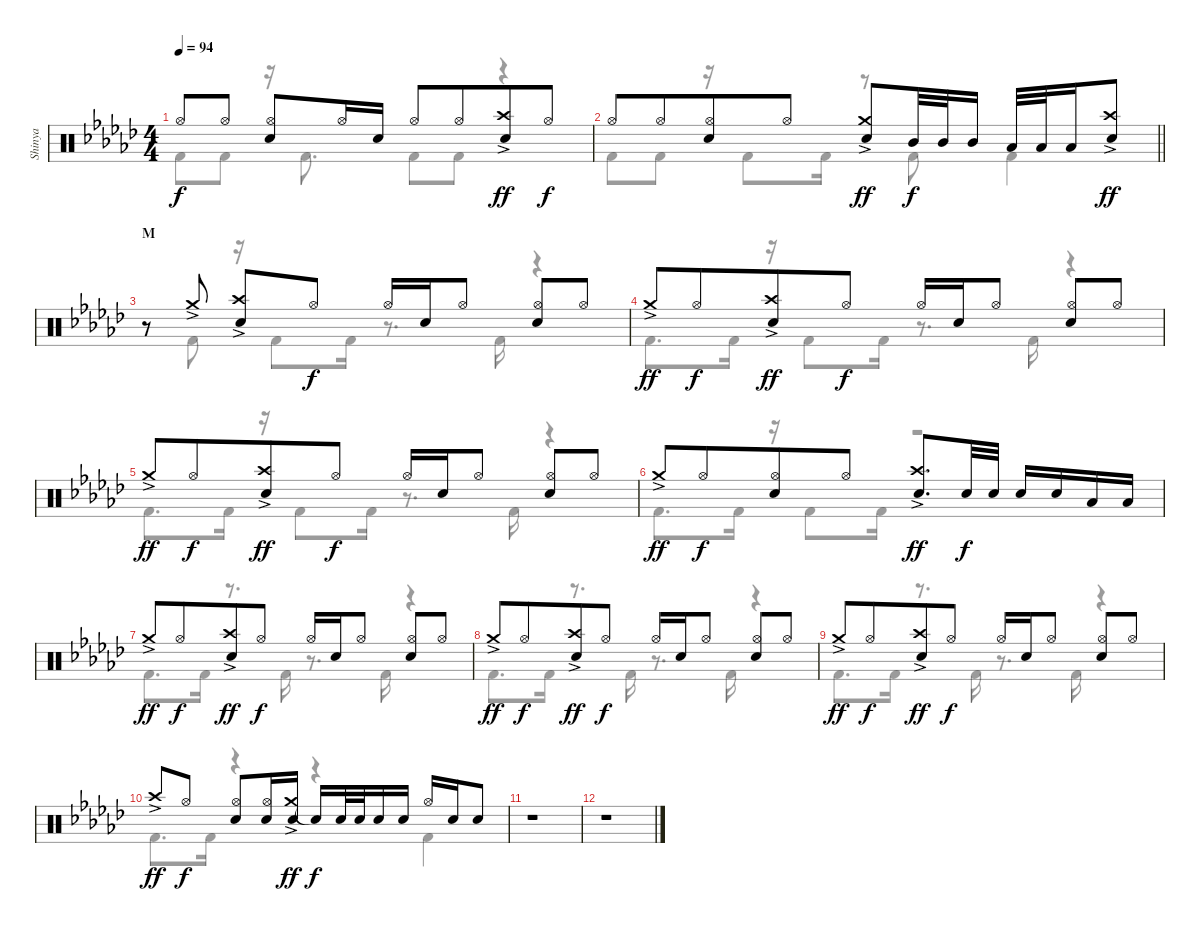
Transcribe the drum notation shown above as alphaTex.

\track ("Shinya" "Shinya") {instrument percussion}
\staff {score}
\articulation defaults
\voice
\ts (4 4)
\tempo 94
\clef neutral
\ks ebminor "Hi-Hat (open)".8{dy f} "Hi-Hat (open)".8
("Hi-Hat (open)" "Snare (hit) 2").8 "Hi-Hat (open)".16 "Snare (hit) 2".16 "Hi-Hat (open)".8 "Hi-Hat (open)".8{beam merge} ("Crash high (hit)"{ac} "Snare (hit) 2").8{dy ff} "Hi-Hat (open)".8{dy f} |
\barLineRight lightlight "Hi-Hat (open)".8 "Hi-Hat (open)".8{beam merge}
("Hi-Hat (open)" "Snare (hit) 2").8 "Hi-Hat (open)".8 ("Crash medium (hit)"{ac} "Snare (hit) 2").8{dy ff} "Mid Tom (hit)".32{dy f} "Mid Tom (hit)".32 "Mid Tom (hit)".16 "Low Tom (hit)".32 "Low Tom (hit)".32 "Low Tom (hit)".16 ("Crash high (hit)"{ac} "Snare (hit) 2").8{dy ff} |
\section ("" "M")
r.8 "Crash medium (hit)"{ac}.8 ("Crash high (hit)"{ac} "Snare (hit) 2").8 "Hi-Hat (open)".8{dy f} "Hi-Hat (open)".16 "Snare (hit) 2".16 "Hi-Hat (open)".8 ("Hi-Hat (open)" "Snare (hit) 2").8 "Hi-Hat (open)".8 |
"Crash medium (hit)"{ac}.8{dy ff} "Hi-Hat (open)".8{dy f beam merge} ("Crash high (hit)"{ac} "Snare (hit) 2").8{dy ff} "Hi-Hat (open)".8{dy f} "Hi-Hat (open)".16 "Snare (hit) 2".16 "Hi-Hat (open)".8 ("Hi-Hat (open)" "Snare (hit) 2").8 "Hi-Hat (open)".8 |
"Crash medium (hit)"{ac}.8{dy ff} "Hi-Hat (open)".8{dy f beam merge} ("Crash high (hit)"{ac} "Snare (hit) 2").8{dy ff} "Hi-Hat (open)".8{dy f} "Hi-Hat (open)".16 "Snare (hit) 2".16 "Hi-Hat (open)".8 ("Hi-Hat (open)" "Snare (hit) 2").8 "Hi-Hat (open)".8 |
"Crash medium (hit)"{ac}.8{dy ff} "Hi-Hat (open)".8{dy f beam merge} ("Hi-Hat (open)" "Snare (hit) 2").8 "Hi-Hat (open)".8 ("Crash high (hit)"{ac} "Snare (hit) 2").8{d dy ff} "Snare (hit) 2".32{dy f} "Snare (hit) 2".32 "Snare (hit) 2".16 "Snare (hit) 2".16 "Low Tom (hit)".16 "Low Tom (hit)".16 |
"Crash medium (hit)"{ac}.8{dy ff} "Hi-Hat (open)".8{dy f beam merge} ("Crash high (hit)"{ac} "Snare (hit) 2").8{dy ff} "Hi-Hat (open)".8{dy f} "Hi-Hat (open)".16 "Snare (hit) 2".16 "Hi-Hat (open)".8 ("Hi-Hat (open)" "Snare (hit) 2").8 "Hi-Hat (open)".8 |
"Crash medium (hit)"{ac}.8{dy ff} "Hi-Hat (open)".8{dy f beam merge} ("Crash high (hit)"{ac} "Snare (hit) 2").8{dy ff} "Hi-Hat (open)".8{dy f} "Hi-Hat (open)".16 "Snare (hit) 2".16 "Hi-Hat (open)".8 ("Hi-Hat (open)" "Snare (hit) 2").8 "Hi-Hat (open)".8 |
"Crash medium (hit)"{ac}.8{dy ff} "Hi-Hat (open)".8{dy f beam merge} ("Crash high (hit)"{ac} "Snare (hit) 2").8{dy ff} "Hi-Hat (open)".8{dy f} "Hi-Hat (open)".16 "Snare (hit) 2".16 "Hi-Hat (open)".8 ("Hi-Hat (open)" "Snare (hit) 2").8 "Hi-Hat (open)".8 |
"Crash high (hit)"{ac}.8{dy ff} "Hi-Hat (open)".8{dy f} ("Hi-Hat (open)" "Snare (hit) 2").8 ("Hi-Hat (open)" "Snare (hit) 2").16 ("Crash medium (hit)"{ac} "Snare (hit) 2").16{dy ff} "Snare (hit)"{t}.16{dy f} "Snare (hit) 2".32 "Snare (hit) 2".32 "Snare (hit) 2".16 "Snare (hit) 2".16 "Hi-Hat (open)".16 "Snare (hit) 2".16 "Snare (hit) 2".8 |
r.1 |
r.1
\voice
\clef neutral
\ottava regular
\simile none
\ks ebminor "Kick (hit) 2".8{dy f} "Kick (hit) 2".8
r.16 "Kick (hit) 2".8{d} "Kick (hit) 2".8 "Kick (hit) 2".8 r.4 |
\barLineRight lightlight "Kick (hit) 2".8 "Kick (hit) 2".8
r.16 "Kick (hit) 2".8 "Kick (hit) 2".16 r.8 "Kick (hit) 2".8 "Kick (hit) 2".4 |
r.8 "Kick (hit) 2".8 r.16 "Kick (hit) 2".8 "Kick (hit) 2".16 r.8{d} "Kick (hit) 2".16 r.4 |
"Kick (hit) 2".8{d} "Kick (hit) 2".16 r.16 "Kick (hit) 2".8 "Kick (hit) 2".16 r.8{d} "Kick (hit) 2".16 r.4 |
"Kick (hit) 2".8{d} "Kick (hit) 2".16 r.16 "Kick (hit) 2".8 "Kick (hit) 2".16 r.8{d} "Kick (hit) 2".16 r.4 |
"Kick (hit) 2".8{d} "Kick (hit) 2".16 r.16 "Kick (hit) 2".8 "Kick (hit) 2".16 r.2 |
"Kick (hit) 2".8{d} "Kick (hit) 2".16 r.8{d} "Kick (hit) 2".16 r.8{d} "Kick (hit) 2".16 r.4 |
"Kick (hit) 2".8{d} "Kick (hit) 2".16 r.8{d} "Kick (hit) 2".16 r.8{d} "Kick (hit) 2".16 r.4 |
"Kick (hit) 2".8{d} "Kick (hit) 2".16 r.8{d} "Kick (hit) 2".16 r.8{d} "Kick (hit) 2".16 r.4 |
"Kick (hit) 2".8{d} "Kick (hit) 2".16 r.4 r.4 "Kick (hit) 2".4 |
r.1 |
r.1
